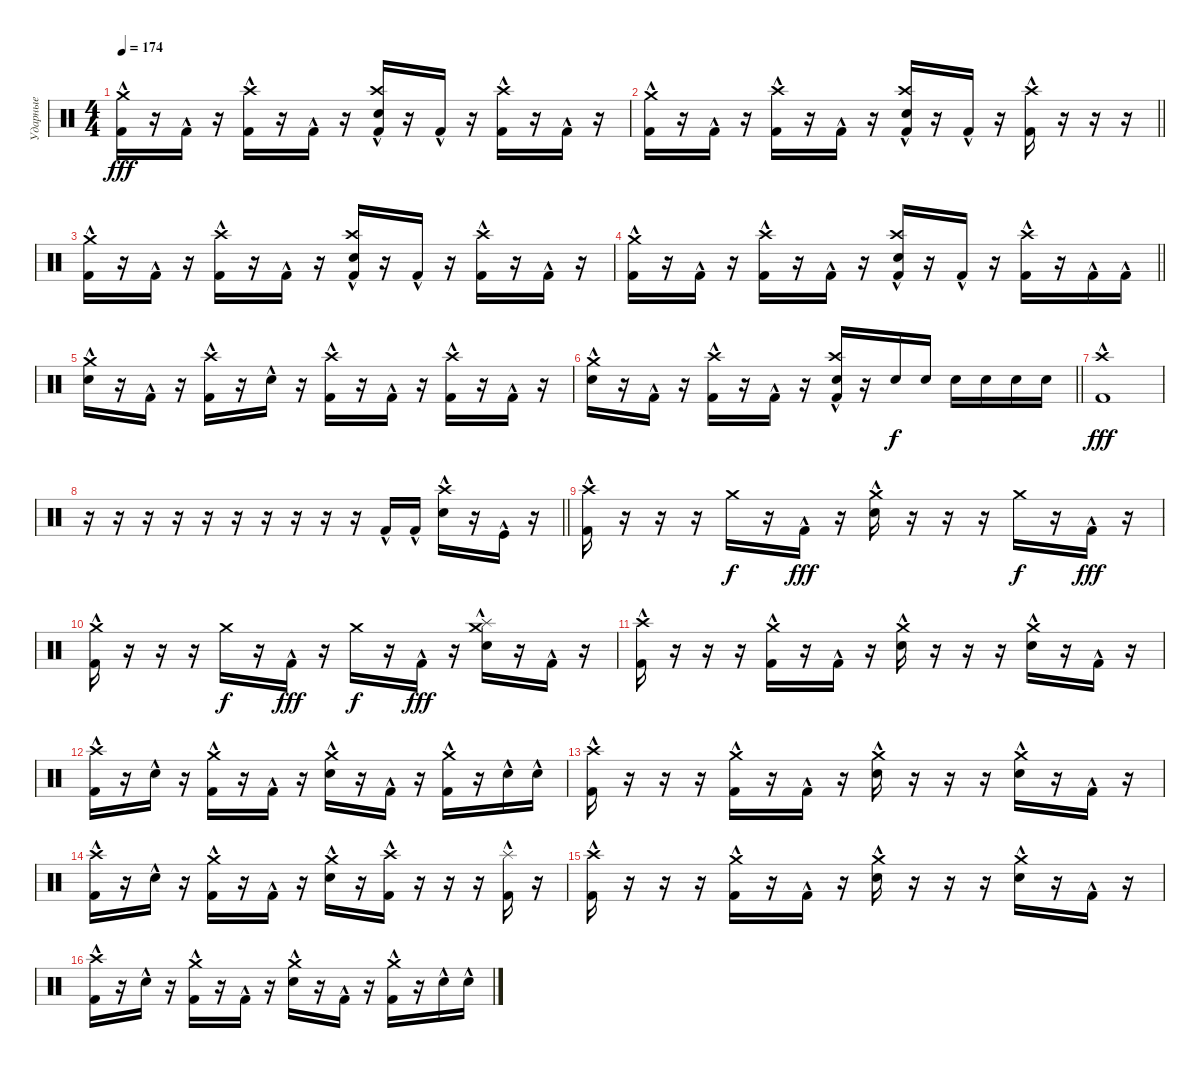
\track ("Ударные" "Ударные") {instrument percussion}
\staff {score}
\articulation defaults
\ts (4 4)
\section ("" "")
\tempo 174
\clef neutral
\ks c
("Crash medium (hit)" "Kick (hit) 2"{hac}).16{dy fff} r.16 "Kick (hit) 2"{hac}.16 r.16 ("Crash high (hit)" "Kick (hit) 2"{hac}).16 r.16 "Kick (hit) 2"{hac}.16 r.16 ("Crash high (hit)" "Kick (hit) 2"{hac} "Snare (hit) 2"{hac}).16 r.16 "Kick (hit) 2"{hac}.16 r.16 ("Crash high (hit)" "Kick (hit) 2"{hac}).16 r.16 "Kick (hit) 2"{hac}.16 r.16 |
\barLineRight lightlight
("Crash medium (hit)" "Kick (hit) 2"{hac}).16 r.16 "Kick (hit) 2"{hac}.16 r.16 ("Crash high (hit)" "Kick (hit) 2"{hac}).16 r.16 "Kick (hit) 2"{hac}.16 r.16 ("Crash high (hit)" "Snare (hit) 2"{hac} "Kick (hit) 2"{hac}).16 r.16 "Kick (hit) 2"{hac}.16 r.16 ("Crash high (hit)" "Kick (hit) 2"{hac}).16 r.16 r.16 r.16 |
("Crash medium (hit)" "Kick (hit) 2"{hac}).16 r.16 "Kick (hit) 2"{hac}.16 r.16 ("Crash high (hit)" "Kick (hit) 2"{hac}).16 r.16 "Kick (hit) 2"{hac}.16 r.16 ("Crash high (hit)" "Kick (hit) 2"{hac} "Snare (hit) 2"{hac}).16 r.16 "Kick (hit) 2"{hac}.16 r.16 ("Crash high (hit)" "Kick (hit) 2"{hac}).16 r.16 "Kick (hit) 2"{hac}.16 r.16 |
\barLineRight lightlight
("Crash medium (hit)" "Kick (hit) 2"{hac}).16 r.16 "Kick (hit) 2"{hac}.16 r.16 ("Crash high (hit)" "Kick (hit) 2"{hac}).16 r.16 "Kick (hit) 2"{hac}.16 r.16 ("Crash high (hit)" "Snare (hit) 2"{hac} "Kick (hit) 2"{hac}).16 r.16 "Kick (hit) 2"{hac}.16 r.16 ("Crash high (hit)" "Kick (hit) 2"{hac}).16 r.16 "Kick (hit) 2"{hac}.16 "Kick (hit) 2"{hac}.16 |
("Crash medium (hit)" "Snare (hit) 2"{hac}).16 r.16 "Kick (hit) 2"{hac}.16 r.16 ("Crash high (hit)" "Kick (hit) 2"{hac}).16 r.16 "Snare (hit) 2"{hac}.16 r.16 ("Crash high (hit)" "Kick (hit) 2"{hac}).16 r.16 "Kick (hit) 2"{hac}.16 r.16 ("Crash high (hit)" "Kick (hit) 2"{hac}).16 r.16 "Kick (hit) 2"{hac}.16 r.16 |
\barLineRight lightlight
("Crash medium (hit)" "Snare (hit) 2"{hac}).16 r.16 "Kick (hit) 2"{hac}.16 r.16 ("Crash high (hit)" "Kick (hit) 2"{hac}).16 r.16 "Kick (hit) 2"{hac}.16 r.16 ("Crash high (hit)" "Snare (hit) 2"{hac} "Kick (hit) 2"{hac}).16 r.16 "Snare (hit) 2".16{dy f} "Snare (hit) 2".16 "Snare (hit) 2".16 "Snare (hit) 2".16 "Snare (hit) 2".16 "Snare (hit) 2".16 |
\section ("" "")
("Kick (hit) 2"{hac} "Crash high (hit)").1{dy fff} |
\barLineRight lightlight
r.16 r.16 r.16 r.16 r.16 r.16 r.16 r.16 r.16 r.16 "Kick (hit) 2"{hac}.16 "Kick (hit) 2"{hac}.16 ("Snare (hit) 2"{hac} "Crash high (hit)").16 r.16 "Kick (hit)"{hac}.16 r.16 |
\section ("" "")
("Crash high (hit)" "Kick (hit) 2"{hac}).16 r.16 r.16 r.16 "Crash medium (hit)".16{dy f} r.16 "Kick (hit) 2"{hac}.16{dy fff} r.16 ("Crash medium (hit)" "Snare (hit) 2"{hac}).16 r.16 r.16 r.16 "Crash medium (hit)".16{dy f} r.16 "Kick (hit) 2"{hac}.16{dy fff} r.16 |
("Crash medium (hit)" "Kick (hit) 2"{hac}).16 r.16 r.16 r.16 "Crash medium (hit)".16{dy f} r.16 "Kick (hit) 2"{hac}.16{dy fff} r.16 "Crash medium (hit)".16{dy f} r.16 "Kick (hit) 2"{hac}.16{dy fff} r.16 ("Crash medium (hit)" "Snare (hit) 2"{hac} "Splash (hit)").16 r.16 "Kick (hit) 2"{hac}.16 r.16 |
("Crash high (hit)" "Kick (hit) 2"{hac}).16 r.16 r.16 r.16 ("Crash medium (hit)" "Kick (hit) 2"{hac}).16 r.16 "Kick (hit) 2"{hac}.16 r.16 ("Crash medium (hit)" "Snare (hit) 2"{hac}).16 r.16 r.16 r.16 ("Crash medium (hit)" "Snare (hit) 2"{hac}).16 r.16 "Kick (hit) 2"{hac}.16 r.16 |
("Crash high (hit)" "Kick (hit) 2"{hac}).16 r.16 "Snare (hit) 2"{hac}.16 r.16 ("Crash medium (hit)" "Kick (hit) 2"{hac}).16 r.16 "Kick (hit) 2"{hac}.16 r.16 ("Crash medium (hit)" "Snare (hit) 2"{hac}).16 r.16 "Kick (hit) 2"{hac}.16 r.16 ("Crash medium (hit)" "Kick (hit) 2"{hac}).16 r.16 "Snare (hit) 2"{hac}.16 "Snare (hit) 2"{hac}.16 |
("Crash high (hit)" "Kick (hit) 2"{hac}).16 r.16 r.16 r.16 ("Crash medium (hit)" "Kick (hit) 2"{hac}).16 r.16 "Kick (hit) 2"{hac}.16 r.16 ("Crash medium (hit)" "Snare (hit) 2"{hac}).16 r.16 r.16 r.16 ("Crash medium (hit)" "Snare (hit) 2"{hac}).16 r.16 "Kick (hit) 2"{hac}.16 r.16 |
("Crash high (hit)" "Kick (hit) 2"{hac}).16 r.16 "Snare (hit) 2"{hac}.16 r.16 ("Crash medium (hit)" "Kick (hit) 2"{hac}).16 r.16 "Kick (hit) 2"{hac}.16 r.16 ("Crash medium (hit)" "Snare (hit) 2"{hac}).16 r.16 ("Kick (hit) 2"{hac} "Crash high (hit)").16 r.16 r.16 r.16 ("Kick (hit) 2"{hac} "Splash (hit)").16 r.16 |
("Crash high (hit)" "Kick (hit) 2"{hac}).16 r.16 r.16 r.16 ("Crash medium (hit)" "Kick (hit) 2"{hac}).16 r.16 "Kick (hit) 2"{hac}.16 r.16 ("Crash medium (hit)" "Snare (hit) 2"{hac}).16 r.16 r.16 r.16 ("Crash medium (hit)" "Snare (hit) 2"{hac}).16 r.16 "Kick (hit) 2"{hac}.16 r.16 |
("Crash high (hit)" "Kick (hit) 2"{hac}).16 r.16 "Snare (hit) 2"{hac}.16 r.16 ("Crash medium (hit)" "Kick (hit) 2"{hac}).16 r.16 "Kick (hit) 2"{hac}.16 r.16 ("Crash medium (hit)" "Snare (hit) 2"{hac}).16 r.16 "Kick (hit) 2"{hac}.16 r.16 ("Crash medium (hit)" "Kick (hit) 2"{hac}).16 r.16 "Snare (hit) 2"{hac}.16 "Snare (hit) 2"{hac}.16
